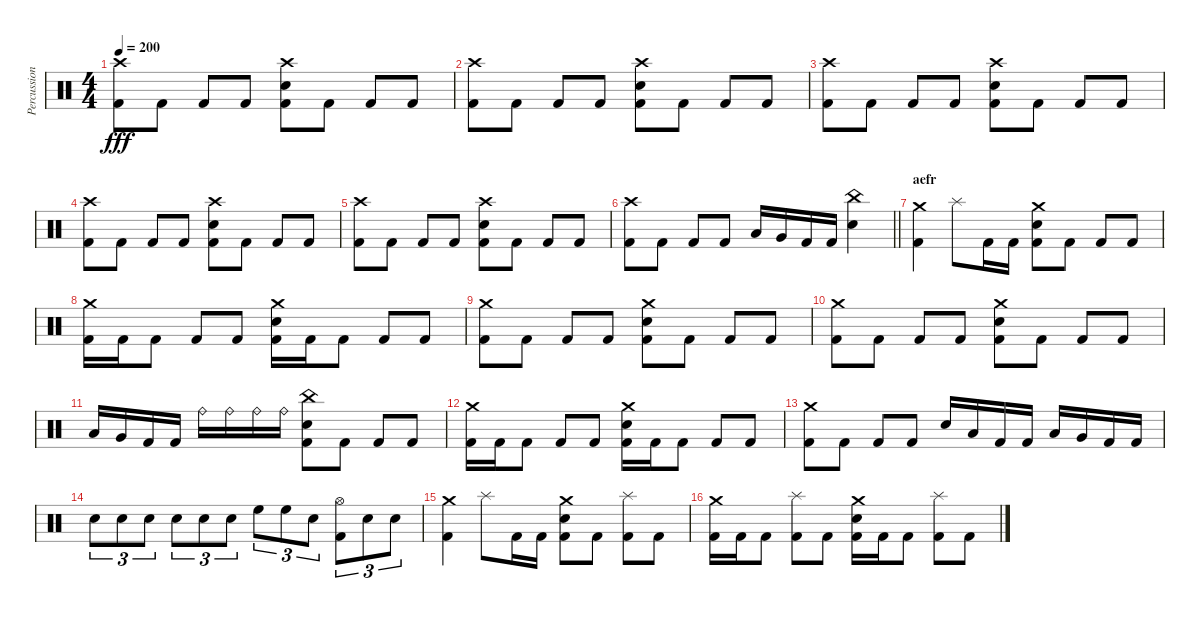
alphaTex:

\track ("Percussion" "Percussion") {instrument percussion}
\staff {score}
\articulation defaults
\ts (4 4)
\tempo 200
\clef neutral
\ks c
("Crash high (hit)" "Kick (hit) 2").8{dy fff} "Kick (hit) 2".8 "Kick (hit) 2".8 "Kick (hit) 2".8 ("Crash high (hit)" "Snare (hit) 2" "Kick (hit) 2").8 "Kick (hit) 2".8 "Kick (hit) 2".8 "Kick (hit) 2".8 |
("Crash high (hit)" "Kick (hit) 2").8 "Kick (hit) 2".8 "Kick (hit) 2".8 "Kick (hit) 2".8 ("Crash high (hit)" "Snare (hit) 2" "Kick (hit) 2").8 "Kick (hit) 2".8 "Kick (hit) 2".8 "Kick (hit) 2".8 |
("Crash high (hit)" "Kick (hit) 2").8 "Kick (hit) 2".8 "Kick (hit) 2".8 "Kick (hit) 2".8 ("Crash high (hit)" "Snare (hit) 2" "Kick (hit) 2").8 "Kick (hit) 2".8 "Kick (hit) 2".8 "Kick (hit) 2".8 |
("Crash high (hit)" "Kick (hit) 2").8 "Kick (hit) 2".8 "Kick (hit) 2".8 "Kick (hit) 2".8 ("Crash high (hit)" "Snare (hit) 2" "Kick (hit) 2").8 "Kick (hit) 2".8 "Kick (hit) 2".8 "Kick (hit) 2".8 |
("Crash high (hit)" "Kick (hit) 2").8 "Kick (hit) 2".8 "Kick (hit) 2".8 "Kick (hit) 2".8 ("Crash high (hit)" "Snare (hit) 2" "Kick (hit) 2").8 "Kick (hit) 2".8 "Kick (hit) 2".8 "Kick (hit) 2".8 |
\barLineRight lightlight
("Crash high (hit)" "Kick (hit) 2").8 "Kick (hit) 2".8 "Kick (hit) 2".8 "Kick (hit) 2".8 "Low Floor Tom (hit)".16 "Very Low Tom (hit)".16 "Kick (hit) 2".16 "Kick (hit) 2".16 ("China (hit)" "Snare (hit) 2").4 |
\section ("" "aefr")
("Crash medium (hit)" "Kick (hit) 2").4 "Splash (hit)".8 "Kick (hit) 2".16 "Kick (hit) 2".16 ("Crash medium (hit)" "Snare (hit) 2" "Kick (hit) 2").8 "Kick (hit) 2".8 "Kick (hit) 2".8 "Kick (hit) 2".8 |
("Crash medium (hit)" "Kick (hit) 2").16 "Kick (hit) 2".16 "Kick (hit) 2".8 "Kick (hit) 2".8 "Kick (hit) 2".8 ("Crash medium (hit)" "Snare (hit) 2" "Kick (hit) 2").16 "Kick (hit) 2".16 "Kick (hit) 2".8 "Kick (hit) 2".8 "Kick (hit) 2".8 |
("Crash medium (hit)" "Kick (hit) 2").8 "Kick (hit) 2".8 "Kick (hit) 2".8 "Kick (hit) 2".8 ("Crash medium (hit)" "Snare (hit) 2" "Kick (hit) 2").8 "Kick (hit) 2".8 "Kick (hit) 2".8 "Kick (hit) 2".8 |
("Crash medium (hit)" "Kick (hit) 2").8 "Kick (hit) 2".8 "Kick (hit) 2".8 "Kick (hit) 2".8 ("Crash medium (hit)" "Snare (hit) 2" "Kick (hit) 2").8 "Kick (hit) 2".8 "Kick (hit) 2".8 "Kick (hit) 2".8 |
"Low Floor Tom (hit)".16 "Very Low Tom (hit)".16 "Kick (hit) 2".16 "Kick (hit) 2".16 "Ride (bell)".16 "Ride (bell)".16 "Ride (bell)".16 "Ride (bell)".16 ("China (hit)" "Snare (hit) 2" "Kick (hit) 2").8 "Kick (hit) 2".8 "Kick (hit) 2".8 "Kick (hit) 2".8 |
("Crash medium (hit)" "Kick (hit) 2").16 "Kick (hit) 2".16 "Kick (hit) 2".8 "Kick (hit) 2".8 "Kick (hit) 2".8 ("Crash medium (hit)" "Snare (hit) 2" "Kick (hit) 2").16 "Kick (hit) 2".16 "Kick (hit) 2".8 "Kick (hit) 2".8 "Kick (hit) 2".8 |
("Crash medium (hit)" "Kick (hit) 2").8 "Kick (hit) 2".8 "Kick (hit) 2".8 "Kick (hit) 2".8 "Snare (hit) 2".16 "Low Tom (hit)".16 "Kick (hit) 2".16 "Kick (hit) 2".16 "Low Floor Tom (hit)".16 "Very Low Tom (hit)".16 "Kick (hit) 2".16 "Kick (hit) 2".16 |
"Snare (hit) 2".8{tu (3 2)} "Snare (hit) 2".8{tu (3 2)} "Snare (hit) 2".8{tu (3 2)} "Snare (hit) 2".8{tu (3 2)} "Snare (hit) 2".8{tu (3 2)} "Snare (hit) 2".8{tu (3 2)} "High Floor Tom (hit)".8{tu (3 2)} "High Floor Tom (hit)".8{tu (3 2)} "Snare (hit) 2".8{tu (3 2)} ("Hi-Hat (open)" "Kick (hit) 2").8{tu (3 2)} "Snare (hit) 2".8{tu (3 2)} "Snare (hit) 2".8{tu (3 2)} |
("Crash medium (hit)" "Kick (hit) 2").4 "Splash (hit)".8 "Kick (hit) 2".16 "Kick (hit) 2".16 ("Crash medium (hit)" "Snare (hit) 2" "Kick (hit) 2").8 "Kick (hit) 2".8 ("Splash (hit)" "Kick (hit) 2").8 "Kick (hit) 2".8 |
("Crash medium (hit)" "Kick (hit) 2").16 "Kick (hit) 2".16 "Kick (hit) 2".8 ("Splash (hit)" "Kick (hit) 2").8 "Kick (hit) 2".8 ("Crash medium (hit)" "Snare (hit) 2" "Kick (hit) 2").16 "Kick (hit) 2".16 "Kick (hit) 2".8 ("Splash (hit)" "Kick (hit) 2").8 "Kick (hit) 2".8
